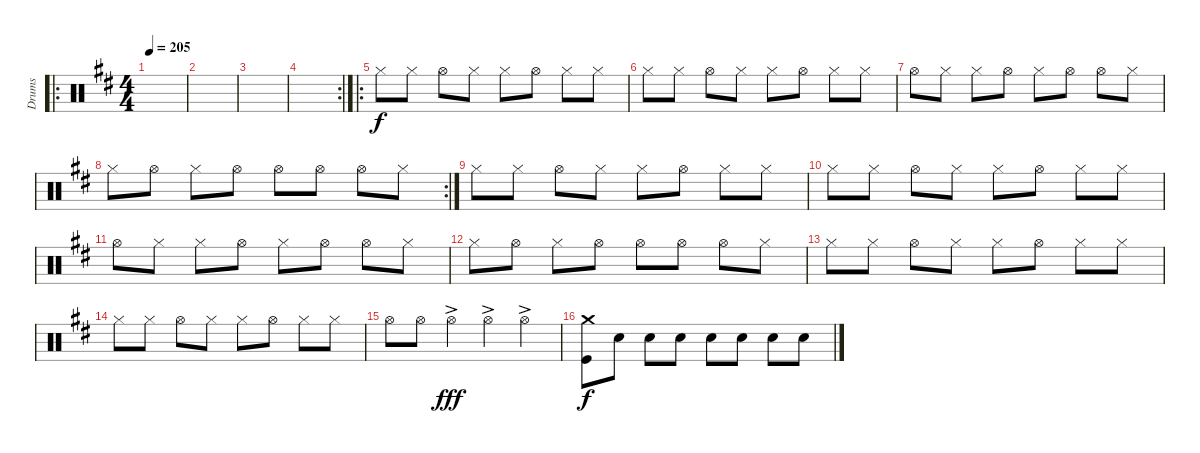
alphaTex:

\track ("Drums" "Drums") {instrument percussion}
\staff {score}
\articulation defaults
\ro
\ts (4 4)
\tempo 205
\clef neutral
\ks d
|
|
|
\rc 2
|
\ro "Hi-Hat (closed)".8 "Hi-Hat (closed)".8 "Hi-Hat (open)".8 "Hi-Hat (closed)".8 "Hi-Hat (closed)".8 "Hi-Hat (open)".8 "Hi-Hat (closed)".8 "Hi-Hat (closed)".8
|
"Hi-Hat (closed)".8 "Hi-Hat (closed)".8 "Hi-Hat (open)".8 "Hi-Hat (closed)".8 "Hi-Hat (closed)".8 "Hi-Hat (open)".8 "Hi-Hat (closed)".8 "Hi-Hat (closed)".8 |
"Hi-Hat (open)".8 "Hi-Hat (closed)".8 "Hi-Hat (closed)".8 "Hi-Hat (open)".8 "Hi-Hat (closed)".8 "Hi-Hat (open)".8 "Hi-Hat (open)".8 "Hi-Hat (closed)".8 |
\rc 2 "Hi-Hat (closed)".8 "Hi-Hat (open)".8 "Hi-Hat (closed)".8 "Hi-Hat (open)".8 "Hi-Hat (open)".8 "Hi-Hat (open)".8 "Hi-Hat (open)".8 "Hi-Hat (closed)".8
|
"Hi-Hat (closed)".8 "Hi-Hat (closed)".8 "Hi-Hat (open)".8 "Hi-Hat (closed)".8 "Hi-Hat (closed)".8 "Hi-Hat (open)".8 "Hi-Hat (closed)".8 "Hi-Hat (closed)".8 |
"Hi-Hat (closed)".8 "Hi-Hat (closed)".8 "Hi-Hat (open)".8 "Hi-Hat (closed)".8 "Hi-Hat (closed)".8 "Hi-Hat (open)".8 "Hi-Hat (closed)".8 "Hi-Hat (closed)".8 |
"Hi-Hat (open)".8 "Hi-Hat (closed)".8 "Hi-Hat (closed)".8 "Hi-Hat (open)".8 "Hi-Hat (closed)".8 "Hi-Hat (open)".8 "Hi-Hat (open)".8 "Hi-Hat (closed)".8 |
"Hi-Hat (closed)".8 "Hi-Hat (open)".8 "Hi-Hat (closed)".8 "Hi-Hat (open)".8 "Hi-Hat (open)".8 "Hi-Hat (open)".8 "Hi-Hat (open)".8 "Hi-Hat (closed)".8 |
"Hi-Hat (closed)".8 "Hi-Hat (closed)".8 "Hi-Hat (open)".8 "Hi-Hat (closed)".8 "Hi-Hat (closed)".8 "Hi-Hat (open)".8 "Hi-Hat (closed)".8 "Hi-Hat (closed)".8 |
"Hi-Hat (closed)".8 "Hi-Hat (closed)".8 "Hi-Hat (open)".8 "Hi-Hat (closed)".8 "Hi-Hat (closed)".8 "Hi-Hat (open)".8 "Hi-Hat (closed)".8 "Hi-Hat (closed)".8 |
"Hi-Hat (open)".8 "Hi-Hat (open)".8 "Hi-Hat (open)"{ac}.4{dy fff} "Hi-Hat (open)"{ac}.4 "Hi-Hat (open)"{ac}.4 |
("Kick (hit)" "Crash medium (hit)").8{dy f} "Electric Snare (hit)".8 "Electric Snare (hit)".8 "Electric Snare (hit)".8 "Electric Snare (hit)".8 "Electric Snare (hit)".8 "Electric Snare (hit)".8 "Electric Snare (hit)".8
